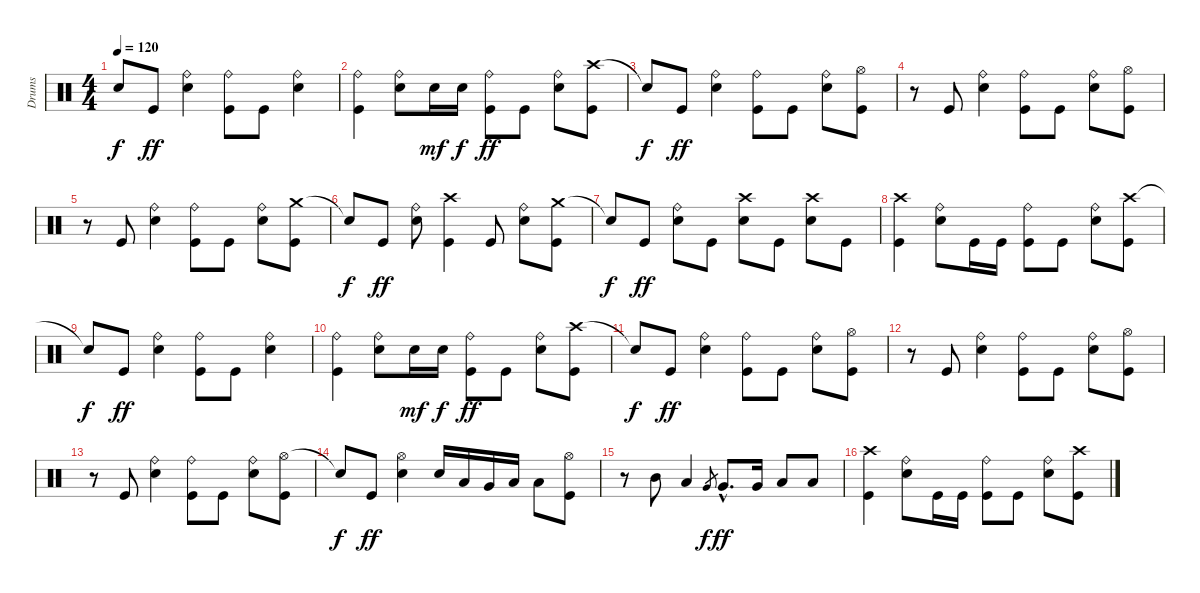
\track ("Drums" "Drums") {instrument percussion}
\staff {score}
\articulation defaults
\ts (4 4)
\tempo 120
\clef neutral
\ks c "Snare (hit)"{t}.8{dy f} "Kick (hit)".8{dy ff}
("Ride (bell)" "Electric Snare (hit)").4 ("Ride (bell)" "Kick (hit)").8 "Kick (hit)".8 ("Ride (bell)" "Electric Snare (hit)").4 |
("Ride (bell)" "Kick (hit)").4 ("Ride (bell)" "Electric Snare (hit)").8 "Electric Snare (hit)".16{dy mf} "Electric Snare (hit)".16{dy f} ("Ride (bell)" "Kick (hit)").8{dy ff} "Kick (hit)".8 ("Ride (bell)" "Electric Snare (hit)").8 ("Crash high (hit)" "Kick (hit)").8 |
"Snare (hit)"{t}.8{dy f} "Kick (hit)".8{dy ff} ("Ride (bell)" "Electric Snare (hit)").4 ("Ride (bell)" "Kick (hit)").8 "Kick (hit)".8 ("Ride (bell)" "Electric Snare (hit)").8 ("Hi-Hat (open)" "Kick (hit)").8 |
r.8 "Kick (hit)".8 ("Ride (bell)" "Electric Snare (hit)").4 ("Ride (bell)" "Kick (hit)").8 "Kick (hit)".8 ("Ride (bell)" "Electric Snare (hit)").8 ("Hi-Hat (open)" "Kick (hit)").8 |
r.8 "Kick (hit)".8 ("Ride (bell)" "Electric Snare (hit)").4 ("Ride (bell)" "Kick (hit)").8 "Kick (hit)".8 ("Ride (bell)" "Electric Snare (hit)").8 ("Crash medium (hit)" "Kick (hit)").8 |
"Snare (hit)"{t}.8{dy f} "Kick (hit)".8{dy ff} ("Ride (bell)" "Electric Snare (hit)").8 ("Crash high (hit)" "Kick (hit)").4 "Kick (hit)".8 ("Ride (bell)" "Electric Snare (hit)").8 ("Crash medium (hit)" "Kick (hit)").8 |
"Snare (hit)"{t}.8{dy f} "Kick (hit)".8{dy ff} ("Ride (bell)" "Electric Snare (hit)").8 "Kick (hit)".8 ("Crash high (hit)" "Electric Snare (hit)").8 "Kick (hit)".8 ("Crash high (hit)" "Electric Snare (hit)").8 "Kick (hit)".8 |
("Crash high (hit)" "Kick (hit)").4 ("Ride (bell)" "Electric Snare (hit)").8 "Kick (hit)".16 "Kick (hit)".16 ("Ride (bell)" "Kick (hit)").8 "Kick (hit)".8 ("Ride (bell)" "Electric Snare (hit)").8 ("Crash high (hit)" "Kick (hit)").8 |
"Snare (hit)"{t}.8{dy f} "Kick (hit)".8{dy ff} ("Ride (bell)" "Electric Snare (hit)").4 ("Ride (bell)" "Kick (hit)").8 "Kick (hit)".8 ("Ride (bell)" "Electric Snare (hit)").4 |
("Ride (bell)" "Kick (hit)").4 ("Ride (bell)" "Electric Snare (hit)").8 "Electric Snare (hit)".16{dy mf} "Electric Snare (hit)".16{dy f} ("Ride (bell)" "Kick (hit)").8{dy ff} "Kick (hit)".8 ("Ride (bell)" "Electric Snare (hit)").8 ("Crash high (hit)" "Kick (hit)").8 |
"Snare (hit)"{t}.8{dy f} "Kick (hit)".8{dy ff} ("Ride (bell)" "Electric Snare (hit)").4 ("Ride (bell)" "Kick (hit)").8 "Kick (hit)".8 ("Ride (bell)" "Electric Snare (hit)").8 ("Hi-Hat (open)" "Kick (hit)").8 |
r.8 "Kick (hit)".8 ("Ride (bell)" "Electric Snare (hit)").4 ("Ride (bell)" "Kick (hit)").8 "Kick (hit)".8 ("Ride (bell)" "Electric Snare (hit)").8 ("Hi-Hat (open)" "Kick (hit)").8 |
r.8 "Kick (hit)".8 ("Ride (bell)" "Electric Snare (hit)").4 ("Ride (bell)" "Kick (hit)").8 "Kick (hit)".8 ("Ride (bell)" "Electric Snare (hit)").8 ("Hi-Hat (open)" "Kick (hit)").8 |
"Snare (hit)"{t}.8{dy f} "Kick (hit)".8{dy ff} ("Hi-Hat (open)" "Electric Snare (hit)").4 "Electric Snare (hit)".16 "Low Tom (hit)".16 "Very Low Tom (hit)".16 "Low Floor Tom (hit)".16 "Low Floor Tom (hit)".8 ("Hi-Hat (open)" "Kick (hit)").8 |
r.8 "Mid Tom (hit)".8 "Low Tom (hit)".4 "Very Low Tom (hit)".8{gr dy f} "Very Low Tom (hit)"{hac}.8{d dy ff} "Very Low Tom (hit)".16 "Low Floor Tom (hit)".8 "Low Floor Tom (hit)".8 |
("Crash high (hit)" "Kick (hit)").4 ("Ride (bell)" "Electric Snare (hit)").8 "Kick (hit)".16 "Kick (hit)".16 ("Ride (bell)" "Kick (hit)").8 "Kick (hit)".8 ("Ride (bell)" "Electric Snare (hit)").8 ("Crash high (hit)" "Kick (hit)").8
